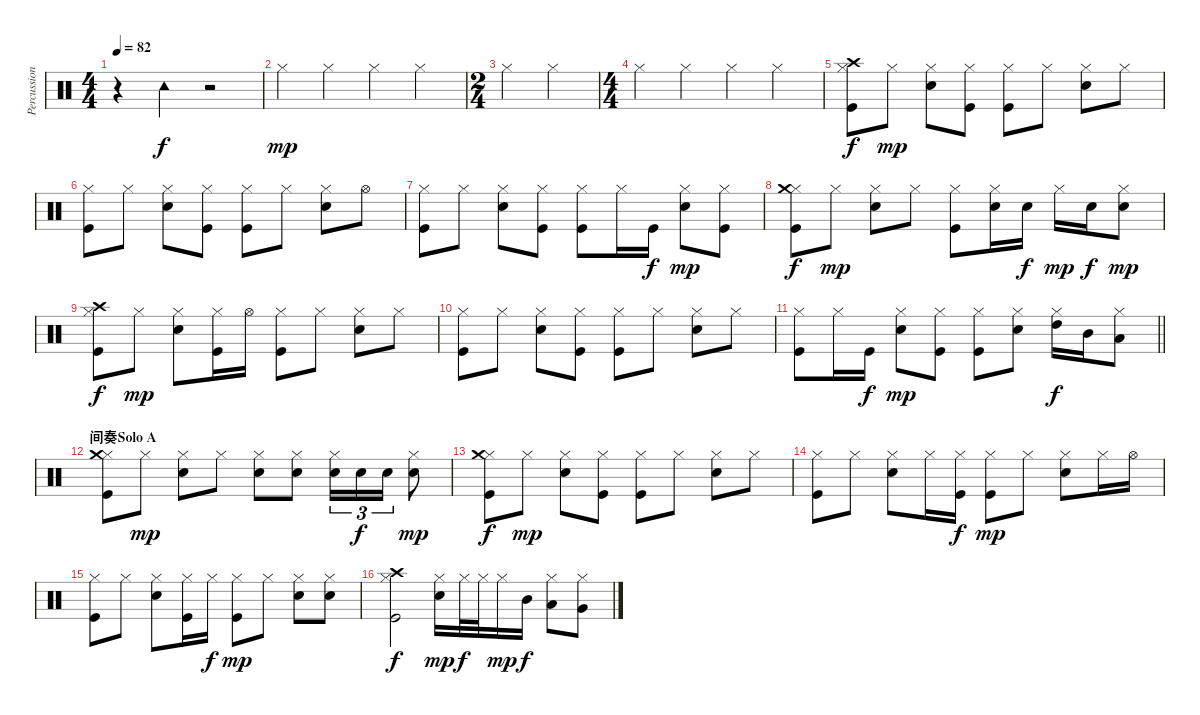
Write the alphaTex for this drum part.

\track ("Percussion" "Percussion") {instrument percussion}
\staff {score}
\articulation defaults
\ts (4 4)
\tempo 82
\clef neutral
\ks c
r.4{dy f} "Tambourine (hit)".4 r.2 |
"Hi-Hat (closed)".4{dy mp} "Hi-Hat (closed)".4 "Hi-Hat (closed)".4 "Hi-Hat (closed)".4 |
\ts (2 4)
"Hi-Hat (closed)".4 "Hi-Hat (closed)".4 |
\ts (4 4)
"Hi-Hat (closed)".4 "Hi-Hat (closed)".4 "Hi-Hat (closed)".4 "Hi-Hat (closed)".4 |
("Kick (hit)" "Hi-Hat (closed)" "Crash high (hit)").8{dy f} "Hi-Hat (closed)".8{dy mp} ("Electric Snare (hit)" "Hi-Hat (closed)").8 ("Kick (hit)" "Hi-Hat (closed)").8 ("Kick (hit)" "Hi-Hat (closed)").8 "Hi-Hat (closed)".8 ("Electric Snare (hit)" "Hi-Hat (closed)").8 "Hi-Hat (closed)".8 |
("Kick (hit)" "Hi-Hat (closed)").8 "Hi-Hat (closed)".8 ("Electric Snare (hit)" "Hi-Hat (closed)").8 ("Kick (hit)" "Hi-Hat (closed)").8 ("Kick (hit)" "Hi-Hat (closed)").8 "Hi-Hat (closed)".8 ("Electric Snare (hit)" "Hi-Hat (closed)").8 "Hi-Hat (open)".8 |
("Kick (hit)" "Hi-Hat (closed)").8 "Hi-Hat (closed)".8 ("Electric Snare (hit)" "Hi-Hat (closed)").8 ("Kick (hit)" "Hi-Hat (closed)").8 ("Kick (hit)" "Hi-Hat (closed)").8 "Hi-Hat (closed)".16 "Kick (hit)".16{dy f} ("Electric Snare (hit)" "Hi-Hat (closed)").8{dy mp} ("Kick (hit)" "Hi-Hat (closed)").8 |
("Kick (hit)" "Hi-Hat (closed)" "Crash medium (hit)").8{dy f} "Hi-Hat (closed)".8{dy mp} ("Electric Snare (hit)" "Hi-Hat (closed)").8 "Hi-Hat (closed)".8 ("Kick (hit)" "Hi-Hat (closed)").8 ("Electric Snare (hit)" "Hi-Hat (closed)").16 "Electric Snare (hit)".16{dy f} "Hi-Hat (closed)".16{dy mp} "Electric Snare (hit)".16{dy f} ("Electric Snare (hit)" "Hi-Hat (closed)").8{dy mp} |
("Kick (hit)" "Hi-Hat (closed)" "Crash high (hit)").8{dy f} "Hi-Hat (closed)".8{dy mp} ("Electric Snare (hit)" "Hi-Hat (closed)").8 ("Kick (hit)" "Hi-Hat (closed)").16 "Hi-Hat (open)".16 ("Kick (hit)" "Hi-Hat (closed)").8 "Hi-Hat (closed)".8 ("Electric Snare (hit)" "Hi-Hat (closed)").8 "Hi-Hat (closed)".8 |
("Kick (hit)" "Hi-Hat (closed)").8 "Hi-Hat (closed)".8 ("Electric Snare (hit)" "Hi-Hat (closed)").8 ("Kick (hit)" "Hi-Hat (closed)").8 ("Kick (hit)" "Hi-Hat (closed)").8 "Hi-Hat (closed)".8 ("Electric Snare (hit)" "Hi-Hat (closed)").8 "Hi-Hat (closed)".8 |
\barLineRight lightlight
("Kick (hit)" "Hi-Hat (closed)").8 "Hi-Hat (closed)".16 "Kick (hit)".16{dy f} ("Electric Snare (hit)" "Hi-Hat (closed)").8{dy mp} ("Kick (hit)" "Hi-Hat (closed)").8 ("Kick (hit)" "Hi-Hat (closed)").8 ("Electric Snare (hit)" "Hi-Hat (closed)").8 ("High Tom (hit)" "Hi-Hat (closed)").16{dy f} "Mid Tom (hit)".16 ("Low Tom (hit)" "Hi-Hat (closed)").8 |
\section ("" "间奏Solo A")
("Kick (hit)" "Hi-Hat (closed)" "Crash medium (hit)").8 "Hi-Hat (closed)".8{dy mp} ("Electric Snare (hit)" "Hi-Hat (closed)").8 "Hi-Hat (closed)".8 ("Electric Snare (hit)" "Hi-Hat (closed)").8 ("Electric Snare (hit)" "Hi-Hat (closed)").8 ("Electric Snare (hit)" "Hi-Hat (closed)").16{tu (3 2)} "Electric Snare (hit)".16{tu (3 2) dy f} "Electric Snare (hit)".16{tu (3 2)} ("Electric Snare (hit)" "Hi-Hat (closed)").8{dy mp} |
("Kick (hit)" "Hi-Hat (closed)" "Crash medium (hit)").8{dy f} "Hi-Hat (closed)".8{dy mp} ("Electric Snare (hit)" "Hi-Hat (closed)").8 ("Kick (hit)" "Hi-Hat (closed)").8 ("Kick (hit)" "Hi-Hat (closed)").8 "Hi-Hat (closed)".8 ("Electric Snare (hit)" "Hi-Hat (closed)").8 "Hi-Hat (closed)".8 |
("Kick (hit)" "Hi-Hat (closed)").8 "Hi-Hat (closed)".8 ("Electric Snare (hit)" "Hi-Hat (closed)").8 "Hi-Hat (closed)".16 ("Kick (hit)" "Hi-Hat (closed)").16{dy f} ("Kick (hit)" "Hi-Hat (closed)").8{dy mp} "Hi-Hat (closed)".8 ("Electric Snare (hit)" "Hi-Hat (closed)").8 "Hi-Hat (closed)".16 "Hi-Hat (open)".16 |
("Kick (hit)" "Hi-Hat (closed)").8 "Hi-Hat (closed)".8 ("Electric Snare (hit)" "Hi-Hat (closed)").8 ("Kick (hit)" "Hi-Hat (closed)").16 "Hi-Hat (closed)".16{dy f} ("Kick (hit)" "Hi-Hat (closed)").8{dy mp} "Hi-Hat (closed)".8 ("Electric Snare (hit)" "Hi-Hat (closed)").8 ("Electric Snare (hit)" "Hi-Hat (closed)").8 |
("Kick (hit)" "Hi-Hat (closed)" "Crash high (hit)").2{dy f} ("Electric Snare (hit)" "Hi-Hat (closed)").16{dy mp} "Hi-Hat (closed)".32{dy f} "Hi-Hat (closed)".32 "Hi-Hat (closed)".16{dy mp} "Mid Tom (hit)".16{dy f} ("Low Tom (hit)" "Hi-Hat (closed)").8 ("Very Low Tom (hit)" "Hi-Hat (closed)").8
